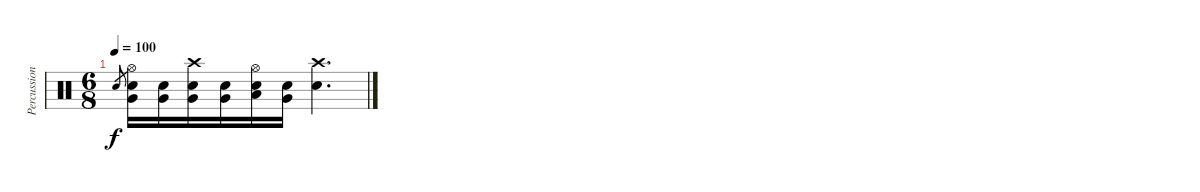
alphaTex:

\track ("Percussion" "Percussion") {instrument percussion}
\staff {score}
\articulation defaults
\ts (6 8)
\tempo 100
\clef neutral
\ks c "Electric Snare (hit)".8{gr dy f}
("Hi-Hat (open)" "Electric Snare (hit)" "Very Low Tom (hit)").16 ("Electric Snare (hit)" "Very Low Tom (hit)").16 ("Crash high (hit)" "Electric Snare (hit)" "Very Low Tom (hit)").16 ("Electric Snare (hit)" "Very Low Tom (hit)").16 ("Hi-Hat (open)" "Electric Snare (hit)" "Low Floor Tom (hit)").16 ("Electric Snare (hit)" "Very Low Tom (hit)").16 ("Crash high (hit)" "Electric Snare (hit)").4{d}
